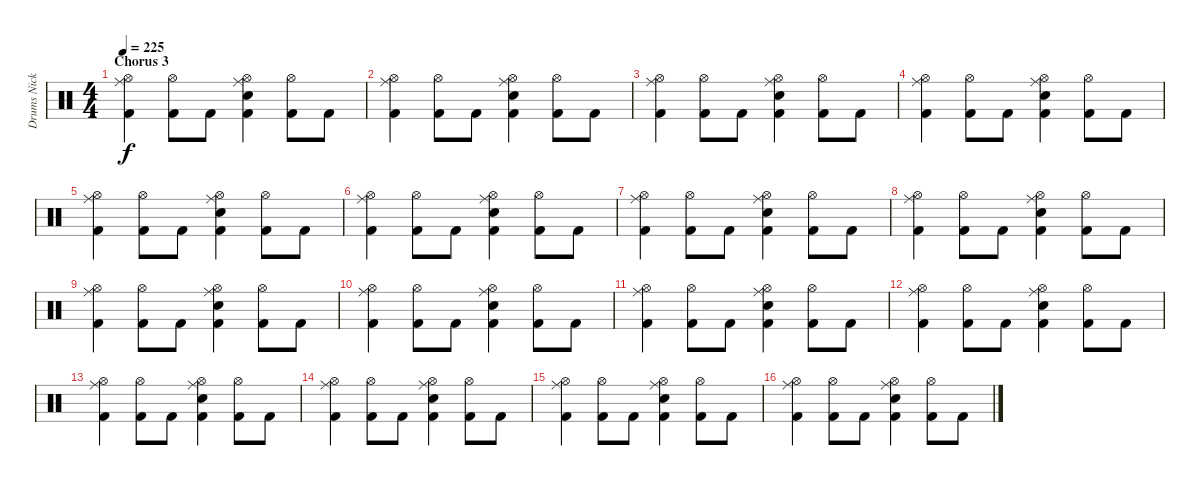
\track ("Drums Nicko McBrain" "Drums Nick") {instrument percussion}
\staff {score}
\articulation defaults
\ts (4 4)
\section ("" "Chorus 3")
\tempo 225
\clef neutral
\ks c
("Hi-Hat (open)" "Ride (middle)" "Kick (hit) 2").4{dy f} ("Hi-Hat (open)" "Kick (hit) 2").8 "Kick (hit) 2".8 ("Hi-Hat (open)" "Snare (hit) 2" "Ride (middle)" "Kick (hit) 2").4 ("Hi-Hat (open)" "Kick (hit) 2").8 "Kick (hit) 2".8 |
("Hi-Hat (open)" "Ride (middle)" "Kick (hit) 2").4 ("Hi-Hat (open)" "Kick (hit) 2").8 "Kick (hit) 2".8 ("Hi-Hat (open)" "Snare (hit) 2" "Ride (middle)" "Kick (hit) 2").4 ("Hi-Hat (open)" "Kick (hit) 2").8 "Kick (hit) 2".8 |
("Hi-Hat (open)" "Ride (middle)" "Kick (hit) 2").4 ("Hi-Hat (open)" "Kick (hit) 2").8 "Kick (hit) 2".8 ("Hi-Hat (open)" "Snare (hit) 2" "Ride (middle)" "Kick (hit) 2").4 ("Hi-Hat (open)" "Kick (hit) 2").8 "Kick (hit) 2".8 |
("Hi-Hat (open)" "Ride (middle)" "Kick (hit) 2").4 ("Hi-Hat (open)" "Kick (hit) 2").8 "Kick (hit) 2".8 ("Hi-Hat (open)" "Snare (hit) 2" "Ride (middle)" "Kick (hit) 2").4 ("Hi-Hat (open)" "Kick (hit) 2").8 "Kick (hit) 2".8 |
("Hi-Hat (open)" "Ride (middle)" "Kick (hit) 2").4 ("Hi-Hat (open)" "Kick (hit) 2").8 "Kick (hit) 2".8 ("Hi-Hat (open)" "Snare (hit) 2" "Ride (middle)" "Kick (hit) 2").4 ("Hi-Hat (open)" "Kick (hit) 2").8 "Kick (hit) 2".8 |
("Hi-Hat (open)" "Ride (middle)" "Kick (hit) 2").4 ("Hi-Hat (open)" "Kick (hit) 2").8 "Kick (hit) 2".8 ("Hi-Hat (open)" "Snare (hit) 2" "Ride (middle)" "Kick (hit) 2").4 ("Hi-Hat (open)" "Kick (hit) 2").8 "Kick (hit) 2".8 |
("Hi-Hat (open)" "Ride (middle)" "Kick (hit) 2").4 ("Hi-Hat (open)" "Kick (hit) 2").8 "Kick (hit) 2".8 ("Hi-Hat (open)" "Snare (hit) 2" "Ride (middle)" "Kick (hit) 2").4 ("Hi-Hat (open)" "Kick (hit) 2").8 "Kick (hit) 2".8 |
("Hi-Hat (open)" "Ride (middle)" "Kick (hit) 2").4 ("Hi-Hat (open)" "Kick (hit) 2").8 "Kick (hit) 2".8 ("Hi-Hat (open)" "Snare (hit) 2" "Ride (middle)" "Kick (hit) 2").4 ("Hi-Hat (open)" "Kick (hit) 2").8 "Kick (hit) 2".8 |
("Hi-Hat (open)" "Ride (middle)" "Kick (hit) 2").4 ("Hi-Hat (open)" "Kick (hit) 2").8 "Kick (hit) 2".8 ("Hi-Hat (open)" "Snare (hit) 2" "Ride (middle)" "Kick (hit) 2").4 ("Hi-Hat (open)" "Kick (hit) 2").8 "Kick (hit) 2".8 |
("Hi-Hat (open)" "Ride (middle)" "Kick (hit) 2").4 ("Hi-Hat (open)" "Kick (hit) 2").8 "Kick (hit) 2".8 ("Hi-Hat (open)" "Snare (hit) 2" "Ride (middle)" "Kick (hit) 2").4 ("Hi-Hat (open)" "Kick (hit) 2").8 "Kick (hit) 2".8 |
("Hi-Hat (open)" "Ride (middle)" "Kick (hit) 2").4 ("Hi-Hat (open)" "Kick (hit) 2").8 "Kick (hit) 2".8 ("Hi-Hat (open)" "Snare (hit) 2" "Ride (middle)" "Kick (hit) 2").4 ("Hi-Hat (open)" "Kick (hit) 2").8 "Kick (hit) 2".8 |
("Hi-Hat (open)" "Ride (middle)" "Kick (hit) 2").4 ("Hi-Hat (open)" "Kick (hit) 2").8 "Kick (hit) 2".8 ("Hi-Hat (open)" "Snare (hit) 2" "Ride (middle)" "Kick (hit) 2").4 ("Hi-Hat (open)" "Kick (hit) 2").8 "Kick (hit) 2".8 |
("Hi-Hat (open)" "Ride (middle)" "Kick (hit) 2").4 ("Hi-Hat (open)" "Kick (hit) 2").8 "Kick (hit) 2".8 ("Hi-Hat (open)" "Snare (hit) 2" "Ride (middle)" "Kick (hit) 2").4 ("Hi-Hat (open)" "Kick (hit) 2").8 "Kick (hit) 2".8 |
("Hi-Hat (open)" "Ride (middle)" "Kick (hit) 2").4 ("Hi-Hat (open)" "Kick (hit) 2").8 "Kick (hit) 2".8 ("Hi-Hat (open)" "Snare (hit) 2" "Ride (middle)" "Kick (hit) 2").4 ("Hi-Hat (open)" "Kick (hit) 2").8 "Kick (hit) 2".8 |
("Hi-Hat (open)" "Ride (middle)" "Kick (hit) 2").4 ("Hi-Hat (open)" "Kick (hit) 2").8 "Kick (hit) 2".8 ("Hi-Hat (open)" "Snare (hit) 2" "Ride (middle)" "Kick (hit) 2").4 ("Hi-Hat (open)" "Kick (hit) 2").8 "Kick (hit) 2".8 |
("Hi-Hat (open)" "Ride (middle)" "Kick (hit) 2").4 ("Hi-Hat (open)" "Kick (hit) 2").8 "Kick (hit) 2".8 ("Hi-Hat (open)" "Snare (hit) 2" "Ride (middle)" "Kick (hit) 2").4 ("Hi-Hat (open)" "Kick (hit) 2").8 "Kick (hit) 2".8
